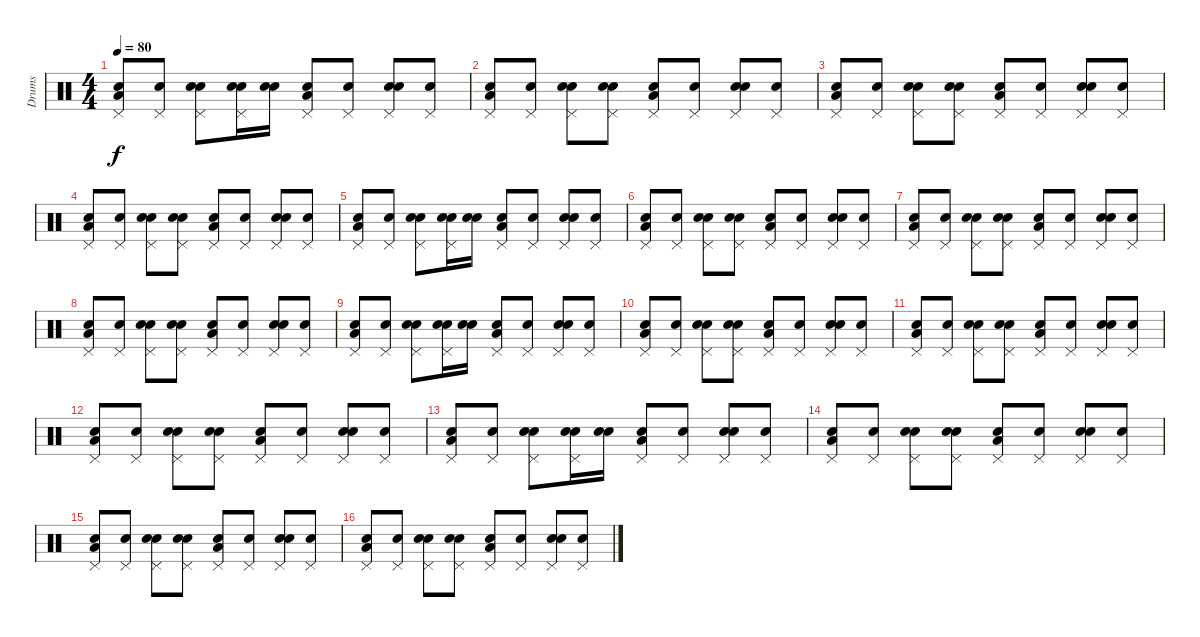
\track ("Drums" "Drums") {instrument percussion}
\staff {score}
\articulation defaults
\ts (4 4)
\tempo 80
\clef neutral
\ks c
("Snare (hit)" "Low Floor Tom (hit)" "Pedal Hi-Hat (hit)").8{dy f} ("Snare (hit)" "Pedal Hi-Hat (hit)").8 ("Snare (hit)" "Electric Snare (hit)" "Pedal Hi-Hat (hit)").8 ("Snare (hit)" "Electric Snare (hit)" "Pedal Hi-Hat (hit)").16 ("Snare (hit)" "Electric Snare (hit)").16 ("Snare (hit)" "Low Floor Tom (hit)" "Pedal Hi-Hat (hit)").8 ("Snare (hit)" "Pedal Hi-Hat (hit)").8 ("Snare (hit)" "Electric Snare (hit)" "Pedal Hi-Hat (hit)").8 ("Snare (hit)" "Pedal Hi-Hat (hit)").8 |
("Snare (hit)" "Low Floor Tom (hit)" "Pedal Hi-Hat (hit)").8 ("Snare (hit)" "Pedal Hi-Hat (hit)").8 ("Snare (hit)" "Electric Snare (hit)" "Pedal Hi-Hat (hit)").8 ("Snare (hit)" "Electric Snare (hit)" "Pedal Hi-Hat (hit)").8 ("Snare (hit)" "Low Floor Tom (hit)" "Pedal Hi-Hat (hit)").8 ("Snare (hit)" "Pedal Hi-Hat (hit)").8 ("Snare (hit)" "Electric Snare (hit)" "Pedal Hi-Hat (hit)").8 ("Snare (hit)" "Pedal Hi-Hat (hit)").8 |
("Snare (hit)" "Low Floor Tom (hit)" "Pedal Hi-Hat (hit)").8 ("Snare (hit)" "Pedal Hi-Hat (hit)").8 ("Snare (hit)" "Electric Snare (hit)" "Pedal Hi-Hat (hit)").8 ("Snare (hit)" "Electric Snare (hit)" "Pedal Hi-Hat (hit)").8 ("Snare (hit)" "Low Floor Tom (hit)" "Pedal Hi-Hat (hit)").8 ("Snare (hit)" "Pedal Hi-Hat (hit)").8 ("Snare (hit)" "Electric Snare (hit)" "Pedal Hi-Hat (hit)").8 ("Snare (hit)" "Pedal Hi-Hat (hit)").8 |
("Snare (hit)" "Low Floor Tom (hit)" "Pedal Hi-Hat (hit)").8 ("Snare (hit)" "Pedal Hi-Hat (hit)").8 ("Snare (hit)" "Electric Snare (hit)" "Pedal Hi-Hat (hit)").8 ("Snare (hit)" "Electric Snare (hit)" "Pedal Hi-Hat (hit)").8 ("Snare (hit)" "Low Floor Tom (hit)" "Pedal Hi-Hat (hit)").8 ("Snare (hit)" "Pedal Hi-Hat (hit)").8 ("Snare (hit)" "Electric Snare (hit)" "Pedal Hi-Hat (hit)").8 ("Snare (hit)" "Pedal Hi-Hat (hit)").8 |
("Snare (hit)" "Low Floor Tom (hit)" "Pedal Hi-Hat (hit)").8 ("Snare (hit)" "Pedal Hi-Hat (hit)").8 ("Snare (hit)" "Electric Snare (hit)" "Pedal Hi-Hat (hit)").8 ("Snare (hit)" "Electric Snare (hit)" "Pedal Hi-Hat (hit)").16 ("Snare (hit)" "Electric Snare (hit)").16 ("Snare (hit)" "Low Floor Tom (hit)" "Pedal Hi-Hat (hit)").8 ("Snare (hit)" "Pedal Hi-Hat (hit)").8 ("Snare (hit)" "Electric Snare (hit)" "Pedal Hi-Hat (hit)").8 ("Snare (hit)" "Pedal Hi-Hat (hit)").8 |
("Snare (hit)" "Low Floor Tom (hit)" "Pedal Hi-Hat (hit)").8 ("Snare (hit)" "Pedal Hi-Hat (hit)").8 ("Snare (hit)" "Electric Snare (hit)" "Pedal Hi-Hat (hit)").8 ("Snare (hit)" "Electric Snare (hit)" "Pedal Hi-Hat (hit)").8 ("Snare (hit)" "Low Floor Tom (hit)" "Pedal Hi-Hat (hit)").8 ("Snare (hit)" "Pedal Hi-Hat (hit)").8 ("Snare (hit)" "Electric Snare (hit)" "Pedal Hi-Hat (hit)").8 ("Snare (hit)" "Pedal Hi-Hat (hit)").8 |
("Snare (hit)" "Low Floor Tom (hit)" "Pedal Hi-Hat (hit)").8 ("Snare (hit)" "Pedal Hi-Hat (hit)").8 ("Snare (hit)" "Electric Snare (hit)" "Pedal Hi-Hat (hit)").8 ("Snare (hit)" "Electric Snare (hit)" "Pedal Hi-Hat (hit)").8 ("Snare (hit)" "Low Floor Tom (hit)" "Pedal Hi-Hat (hit)").8 ("Snare (hit)" "Pedal Hi-Hat (hit)").8 ("Snare (hit)" "Electric Snare (hit)" "Pedal Hi-Hat (hit)").8 ("Snare (hit)" "Pedal Hi-Hat (hit)").8 |
("Snare (hit)" "Low Floor Tom (hit)" "Pedal Hi-Hat (hit)").8 ("Snare (hit)" "Pedal Hi-Hat (hit)").8 ("Snare (hit)" "Electric Snare (hit)" "Pedal Hi-Hat (hit)").8 ("Snare (hit)" "Electric Snare (hit)" "Pedal Hi-Hat (hit)").8 ("Snare (hit)" "Low Floor Tom (hit)" "Pedal Hi-Hat (hit)").8 ("Snare (hit)" "Pedal Hi-Hat (hit)").8 ("Snare (hit)" "Electric Snare (hit)" "Pedal Hi-Hat (hit)").8 ("Snare (hit)" "Pedal Hi-Hat (hit)").8 |
("Snare (hit)" "Low Floor Tom (hit)" "Pedal Hi-Hat (hit)").8 ("Snare (hit)" "Pedal Hi-Hat (hit)").8 ("Snare (hit)" "Electric Snare (hit)" "Pedal Hi-Hat (hit)").8 ("Snare (hit)" "Electric Snare (hit)" "Pedal Hi-Hat (hit)").16 ("Snare (hit)" "Electric Snare (hit)").16 ("Snare (hit)" "Low Floor Tom (hit)" "Pedal Hi-Hat (hit)").8 ("Snare (hit)" "Pedal Hi-Hat (hit)").8 ("Snare (hit)" "Electric Snare (hit)" "Pedal Hi-Hat (hit)").8 ("Snare (hit)" "Pedal Hi-Hat (hit)").8 |
("Snare (hit)" "Low Floor Tom (hit)" "Pedal Hi-Hat (hit)").8 ("Snare (hit)" "Pedal Hi-Hat (hit)").8 ("Snare (hit)" "Electric Snare (hit)" "Pedal Hi-Hat (hit)").8 ("Snare (hit)" "Electric Snare (hit)" "Pedal Hi-Hat (hit)").8 ("Snare (hit)" "Low Floor Tom (hit)" "Pedal Hi-Hat (hit)").8 ("Snare (hit)" "Pedal Hi-Hat (hit)").8 ("Snare (hit)" "Electric Snare (hit)" "Pedal Hi-Hat (hit)").8 ("Snare (hit)" "Pedal Hi-Hat (hit)").8 |
("Snare (hit)" "Low Floor Tom (hit)" "Pedal Hi-Hat (hit)").8 ("Snare (hit)" "Pedal Hi-Hat (hit)").8 ("Snare (hit)" "Electric Snare (hit)" "Pedal Hi-Hat (hit)").8 ("Snare (hit)" "Electric Snare (hit)" "Pedal Hi-Hat (hit)").8 ("Snare (hit)" "Low Floor Tom (hit)" "Pedal Hi-Hat (hit)").8 ("Snare (hit)" "Pedal Hi-Hat (hit)").8 ("Snare (hit)" "Electric Snare (hit)" "Pedal Hi-Hat (hit)").8 ("Snare (hit)" "Pedal Hi-Hat (hit)").8 |
("Snare (hit)" "Low Floor Tom (hit)" "Pedal Hi-Hat (hit)").8 ("Snare (hit)" "Pedal Hi-Hat (hit)").8 ("Snare (hit)" "Electric Snare (hit)" "Pedal Hi-Hat (hit)").8 ("Snare (hit)" "Electric Snare (hit)" "Pedal Hi-Hat (hit)").8 ("Snare (hit)" "Low Floor Tom (hit)" "Pedal Hi-Hat (hit)").8 ("Snare (hit)" "Pedal Hi-Hat (hit)").8 ("Snare (hit)" "Electric Snare (hit)" "Pedal Hi-Hat (hit)").8 ("Snare (hit)" "Pedal Hi-Hat (hit)").8 |
("Snare (hit)" "Low Floor Tom (hit)" "Pedal Hi-Hat (hit)").8 ("Snare (hit)" "Pedal Hi-Hat (hit)").8 ("Snare (hit)" "Electric Snare (hit)" "Pedal Hi-Hat (hit)").8 ("Snare (hit)" "Electric Snare (hit)" "Pedal Hi-Hat (hit)").16 ("Snare (hit)" "Electric Snare (hit)").16 ("Snare (hit)" "Low Floor Tom (hit)" "Pedal Hi-Hat (hit)").8 ("Snare (hit)" "Pedal Hi-Hat (hit)").8 ("Snare (hit)" "Electric Snare (hit)" "Pedal Hi-Hat (hit)").8 ("Snare (hit)" "Pedal Hi-Hat (hit)").8 |
("Snare (hit)" "Low Floor Tom (hit)" "Pedal Hi-Hat (hit)").8 ("Snare (hit)" "Pedal Hi-Hat (hit)").8 ("Snare (hit)" "Electric Snare (hit)" "Pedal Hi-Hat (hit)").8 ("Snare (hit)" "Electric Snare (hit)" "Pedal Hi-Hat (hit)").8 ("Snare (hit)" "Low Floor Tom (hit)" "Pedal Hi-Hat (hit)").8 ("Snare (hit)" "Pedal Hi-Hat (hit)").8 ("Snare (hit)" "Electric Snare (hit)" "Pedal Hi-Hat (hit)").8 ("Snare (hit)" "Pedal Hi-Hat (hit)").8 |
("Snare (hit)" "Low Floor Tom (hit)" "Pedal Hi-Hat (hit)").8 ("Snare (hit)" "Pedal Hi-Hat (hit)").8 ("Snare (hit)" "Electric Snare (hit)" "Pedal Hi-Hat (hit)").8 ("Snare (hit)" "Electric Snare (hit)" "Pedal Hi-Hat (hit)").8 ("Snare (hit)" "Low Floor Tom (hit)" "Pedal Hi-Hat (hit)").8 ("Snare (hit)" "Pedal Hi-Hat (hit)").8 ("Snare (hit)" "Electric Snare (hit)" "Pedal Hi-Hat (hit)").8 ("Snare (hit)" "Pedal Hi-Hat (hit)").8 |
("Snare (hit)" "Low Floor Tom (hit)" "Pedal Hi-Hat (hit)").8 ("Snare (hit)" "Pedal Hi-Hat (hit)").8 ("Snare (hit)" "Electric Snare (hit)" "Pedal Hi-Hat (hit)").8 ("Snare (hit)" "Electric Snare (hit)" "Pedal Hi-Hat (hit)").8 ("Snare (hit)" "Low Floor Tom (hit)" "Pedal Hi-Hat (hit)").8 ("Snare (hit)" "Pedal Hi-Hat (hit)").8 ("Snare (hit)" "Electric Snare (hit)" "Pedal Hi-Hat (hit)").8 ("Snare (hit)" "Pedal Hi-Hat (hit)").8
